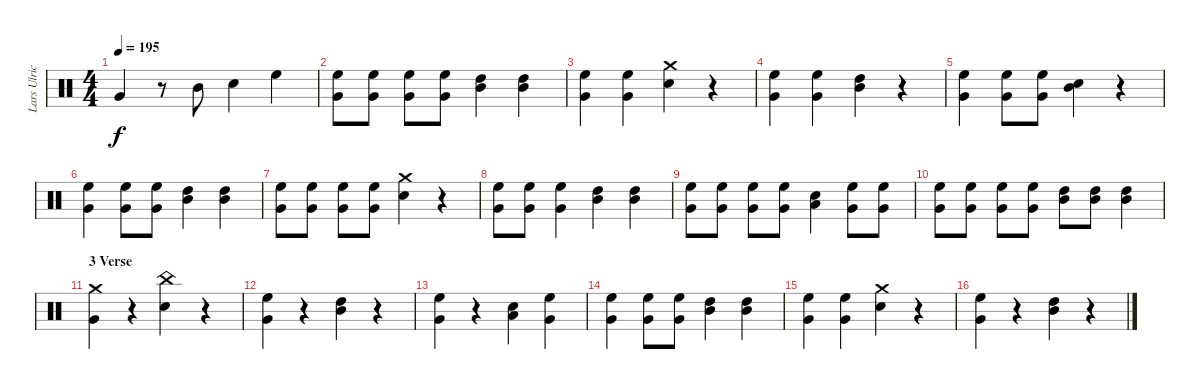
\track ("Lars Ulrich (Drums)" "Lars Ulric") {instrument percussion}
\staff {score}
\articulation defaults
\ts (4 4)
\tempo 195
\clef neutral
\ks c "Very Low Tom (hit)".4{dy f}
r.8 "Mid Tom (hit)".8 "Snare (hit) 2".4 "High Floor Tom (hit)".4 |
("High Floor Tom (hit)" "Very Low Tom (hit)").8 ("Very Low Tom (hit)" "High Floor Tom (hit)").8 ("High Floor Tom (hit)" "Very Low Tom (hit)").8 ("High Floor Tom (hit)" "Very Low Tom (hit)").8 ("Mid Tom (hit)" "High Tom (hit)").4 ("Mid Tom (hit)" "High Tom (hit)").4 |
("Very Low Tom (hit)" "High Floor Tom (hit)").4 ("Very Low Tom (hit)" "High Floor Tom (hit)").4 ("Crash medium (hit)" "Snare (hit) 2").4 r.4 |
("Very Low Tom (hit)" "High Floor Tom (hit)").4 ("Very Low Tom (hit)" "High Floor Tom (hit)").4 ("Mid Tom (hit)" "High Tom (hit)").4 r.4 |
("Very Low Tom (hit)" "High Floor Tom (hit)").4 ("High Floor Tom (hit)" "Very Low Tom (hit)").8 ("High Floor Tom (hit)" "Very Low Tom (hit)").8 ("Snare (hit) 2" "Mid Tom (hit)").4 r.4 |
("High Floor Tom (hit)" "Very Low Tom (hit)").4 ("High Floor Tom (hit)" "Very Low Tom (hit)").8 ("High Floor Tom (hit)" "Very Low Tom (hit)").8 ("Mid Tom (hit)" "High Tom (hit)").4 ("Mid Tom (hit)" "High Tom (hit)").4 |
("High Floor Tom (hit)" "Very Low Tom (hit)").8 ("Very Low Tom (hit)" "High Floor Tom (hit)").8 ("High Floor Tom (hit)" "Very Low Tom (hit)").8 ("High Floor Tom (hit)" "Very Low Tom (hit)").8 ("Snare (hit) 2" "Crash medium (hit)").4 r.4 |
("Very Low Tom (hit)" "High Floor Tom (hit)").8 ("Very Low Tom (hit)" "High Floor Tom (hit)").8 ("Very Low Tom (hit)" "High Floor Tom (hit)").4 ("High Tom (hit)" "Mid Tom (hit)").4 ("High Tom (hit)" "Mid Tom (hit)").4 |
("High Floor Tom (hit)" "Very Low Tom (hit)").8 ("High Floor Tom (hit)" "Very Low Tom (hit)").8 ("High Floor Tom (hit)" "Very Low Tom (hit)").8 ("High Floor Tom (hit)" "Very Low Tom (hit)").8 ("Snare (hit) 2" "Low Tom (hit)").4 ("High Floor Tom (hit)" "Very Low Tom (hit)").8 ("High Floor Tom (hit)" "Very Low Tom (hit)").8 |
("Very Low Tom (hit)" "High Floor Tom (hit)").8 ("Very Low Tom (hit)" "High Floor Tom (hit)").8 ("Very Low Tom (hit)" "High Floor Tom (hit)").8 ("Very Low Tom (hit)" "High Floor Tom (hit)").8 ("High Tom (hit)" "Mid Tom (hit)").8 ("High Tom (hit)" "Mid Tom (hit)").8 ("Mid Tom (hit)" "High Tom (hit)").4 |
\section ("" "3 Verse")
("Very Low Tom (hit)" "Crash medium (hit)").4 r.4 ("China (hit)" "Snare (hit) 2").4 r.4 |
("High Floor Tom (hit)" "Very Low Tom (hit)").4 r.4 ("Mid Tom (hit)" "High Tom (hit)").4 r.4 |
("Very Low Tom (hit)" "High Floor Tom (hit)").4 r.4 ("Snare (hit) 2" "Low Tom (hit)").4 ("High Floor Tom (hit)" "Very Low Tom (hit)").4 |
("Very Low Tom (hit)" "High Floor Tom (hit)").4 ("High Floor Tom (hit)" "Very Low Tom (hit)").8 ("High Floor Tom (hit)" "Very Low Tom (hit)").8 ("Mid Tom (hit)" "High Tom (hit)").4 ("Mid Tom (hit)" "High Tom (hit)").4 |
("Very Low Tom (hit)" "High Floor Tom (hit)").4 ("Very Low Tom (hit)" "High Floor Tom (hit)").4 ("Crash medium (hit)" "Snare (hit) 2").4 r.4 |
("High Floor Tom (hit)" "Very Low Tom (hit)").4 r.4 ("Mid Tom (hit)" "High Tom (hit)").4 r.4
